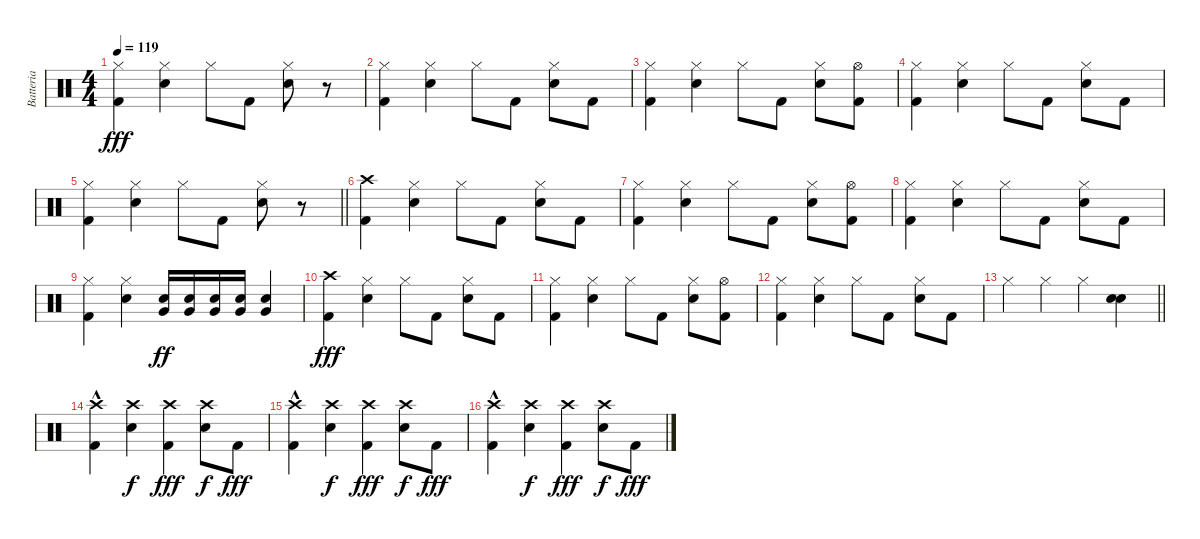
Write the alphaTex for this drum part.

\track ("Batteria" "Batteria") {instrument percussion}
\staff {score}
\articulation defaults
\ts (4 4)
\tempo 119
\clef neutral
\ks c
("Hi-Hat (closed)" "Kick (hit) 2").4{dy fff} ("Hi-Hat (closed)" "Electric Snare (hit)").4 "Hi-Hat (closed)".8 "Kick (hit) 2".8 ("Hi-Hat (closed)" "Electric Snare (hit)").8 r.8 |
("Hi-Hat (closed)" "Kick (hit) 2").4 ("Hi-Hat (closed)" "Electric Snare (hit)").4 "Hi-Hat (closed)".8 "Kick (hit) 2".8 ("Hi-Hat (closed)" "Electric Snare (hit)").8 "Kick (hit) 2".8 |
("Hi-Hat (closed)" "Kick (hit) 2").4 ("Hi-Hat (closed)" "Electric Snare (hit)").4 "Hi-Hat (closed)".8 "Kick (hit) 2".8 ("Hi-Hat (closed)" "Electric Snare (hit)").8 ("Hi-Hat (open)" "Kick (hit) 2").8 |
("Hi-Hat (closed)" "Kick (hit) 2").4 ("Hi-Hat (closed)" "Electric Snare (hit)").4 "Hi-Hat (closed)".8 "Kick (hit) 2".8 ("Hi-Hat (closed)" "Electric Snare (hit)").8 "Kick (hit) 2".8 |
\barLineRight lightlight
("Hi-Hat (closed)" "Kick (hit) 2").4 ("Hi-Hat (closed)" "Electric Snare (hit)").4 "Hi-Hat (closed)".8 "Kick (hit) 2".8 ("Hi-Hat (closed)" "Electric Snare (hit)").8 r.8 |
("Crash high (hit)" "Kick (hit) 2").4 ("Hi-Hat (closed)" "Electric Snare (hit)").4 "Hi-Hat (closed)".8 "Kick (hit) 2".8 ("Hi-Hat (closed)" "Electric Snare (hit)").8 "Kick (hit) 2".8 |
("Hi-Hat (closed)" "Kick (hit) 2").4 ("Hi-Hat (closed)" "Electric Snare (hit)").4 "Hi-Hat (closed)".8 "Kick (hit) 2".8 ("Hi-Hat (closed)" "Electric Snare (hit)").8 ("Hi-Hat (open)" "Kick (hit) 2").8 |
("Hi-Hat (closed)" "Kick (hit) 2").4 ("Hi-Hat (closed)" "Electric Snare (hit)").4 "Hi-Hat (closed)".8 "Kick (hit) 2".8 ("Hi-Hat (closed)" "Electric Snare (hit)").8 "Kick (hit) 2".8 |
("Hi-Hat (closed)" "Kick (hit) 2").4 ("Hi-Hat (closed)" "Electric Snare (hit)").4 ("Very Low Tom (hit)" "Electric Snare (hit)").16{dy ff} ("Very Low Tom (hit)" "Electric Snare (hit)").16 ("Very Low Tom (hit)" "Electric Snare (hit)").16 ("Very Low Tom (hit)" "Electric Snare (hit)").16 ("Very Low Tom (hit)" "Electric Snare (hit)").4 |
("Crash high (hit)" "Kick (hit) 2").4{dy fff} ("Hi-Hat (closed)" "Electric Snare (hit)").4 "Hi-Hat (closed)".8 "Kick (hit) 2".8 ("Hi-Hat (closed)" "Electric Snare (hit)").8 "Kick (hit) 2".8 |
("Hi-Hat (closed)" "Kick (hit) 2").4 ("Hi-Hat (closed)" "Electric Snare (hit)").4 "Hi-Hat (closed)".8 "Kick (hit) 2".8 ("Hi-Hat (closed)" "Electric Snare (hit)").8 ("Hi-Hat (open)" "Kick (hit) 2").8 |
("Hi-Hat (closed)" "Kick (hit) 2").4 ("Hi-Hat (closed)" "Electric Snare (hit)").4 "Hi-Hat (closed)".8 "Kick (hit) 2".8 ("Hi-Hat (closed)" "Electric Snare (hit)").8 "Kick (hit) 2".8 |
\barLineRight lightlight "Hi-Hat (closed)".4 "Hi-Hat (closed)".4 "Hi-Hat (closed)".4
("Electric Snare (hit)" "Electric Snare (hit)").4{bd 120} |
("Crash high (hit)"{hac} "Kick (hit) 2").4 ("Crash high (hit)" "Electric Snare (hit)").4{dy f} ("Crash high (hit)" "Kick (hit) 2").4{dy fff} ("Crash high (hit)" "Electric Snare (hit)").8{dy f} "Kick (hit) 2".8{dy fff} |
("Crash high (hit)"{hac} "Kick (hit) 2").4 ("Crash high (hit)" "Electric Snare (hit)").4{dy f} ("Crash high (hit)" "Kick (hit) 2").4{dy fff} ("Crash high (hit)" "Electric Snare (hit)").8{dy f} "Kick (hit) 2".8{dy fff} |
("Crash high (hit)"{hac} "Kick (hit) 2").4 ("Crash high (hit)" "Electric Snare (hit)").4{dy f} ("Crash high (hit)" "Kick (hit) 2").4{dy fff} ("Crash high (hit)" "Electric Snare (hit)").8{dy f} "Kick (hit) 2".8{dy fff}
